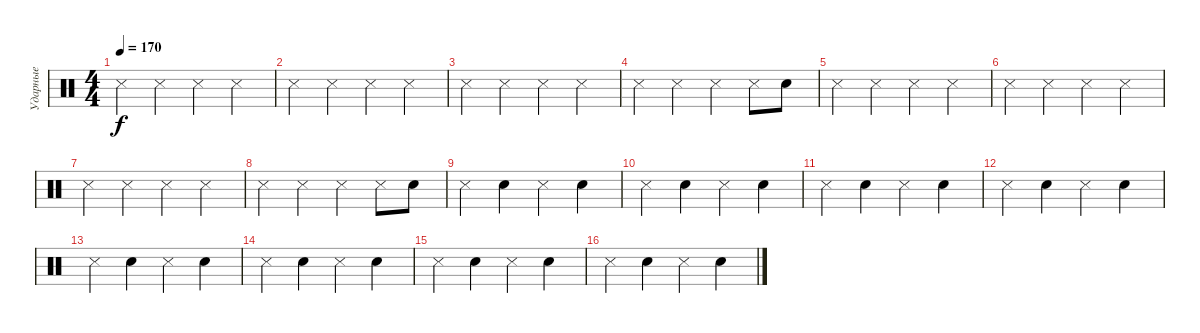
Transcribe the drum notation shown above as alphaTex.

\track ("Ударные" "Ударные") {instrument percussion}
\staff {score}
\articulation defaults
\ts (4 4)
\tempo 170
\clef neutral
\ks c "Metronome (hit)".4{dy f} "Metronome (hit)".4 "Metronome (hit)".4 "Metronome (hit)".4
|
"Metronome (hit)".4 "Metronome (hit)".4 "Metronome (hit)".4 "Metronome (hit)".4 |
"Metronome (hit)".4 "Metronome (hit)".4 "Metronome (hit)".4 "Metronome (hit)".4 |
"Metronome (hit)".4 "Metronome (hit)".4 "Metronome (hit)".4 "Metronome (hit)".8 "Electric Snare (hit)".8 |
"Metronome (hit)".4 "Metronome (hit)".4 "Metronome (hit)".4 "Metronome (hit)".4 |
"Metronome (hit)".4 "Metronome (hit)".4 "Metronome (hit)".4 "Metronome (hit)".4 |
"Metronome (hit)".4 "Metronome (hit)".4 "Metronome (hit)".4 "Metronome (hit)".4 |
"Metronome (hit)".4 "Metronome (hit)".4 "Metronome (hit)".4 "Metronome (hit)".8 "Electric Snare (hit)".8 |
"Metronome (hit)".4 "Electric Snare (hit)".4 "Metronome (hit)".4 "Electric Snare (hit)".4 |
"Metronome (hit)".4 "Electric Snare (hit)".4 "Metronome (hit)".4 "Electric Snare (hit)".4 |
"Metronome (hit)".4 "Electric Snare (hit)".4 "Metronome (hit)".4 "Electric Snare (hit)".4 |
"Metronome (hit)".4 "Electric Snare (hit)".4 "Metronome (hit)".4 "Electric Snare (hit)".4 |
"Metronome (hit)".4 "Electric Snare (hit)".4 "Metronome (hit)".4 "Electric Snare (hit)".4 |
"Metronome (hit)".4 "Electric Snare (hit)".4 "Metronome (hit)".4 "Electric Snare (hit)".4 |
"Metronome (hit)".4 "Electric Snare (hit)".4 "Metronome (hit)".4 "Electric Snare (hit)".4 |
"Metronome (hit)".4 "Electric Snare (hit)".4 "Metronome (hit)".4 "Electric Snare (hit)".4
